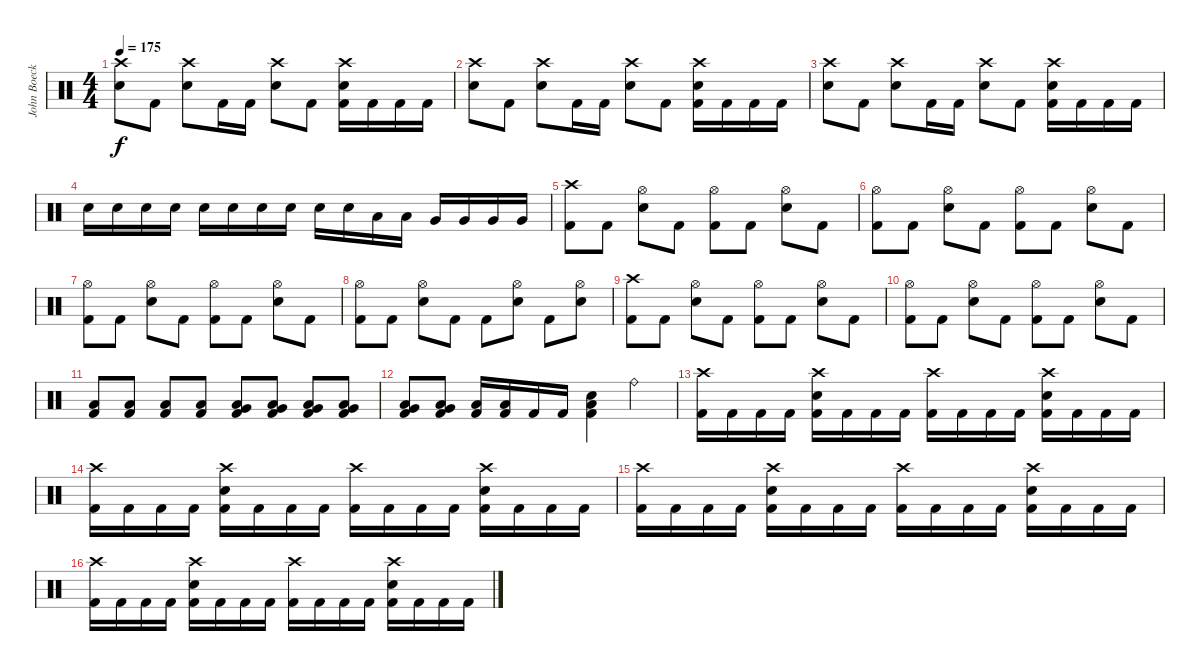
\track ("John Boecklin (Drums)" "John Boeck") {instrument percussion}
\staff {score}
\articulation defaults
\ts (4 4)
\tempo 175
\clef neutral
\ks c
("Crash high (hit)" "Snare (hit) 2").8{dy f} "Kick (hit) 2".8 ("Crash high (hit)" "Snare (hit) 2").8 "Kick (hit) 2".16 "Kick (hit) 2".16 ("Crash high (hit)" "Snare (hit) 2").8 "Kick (hit) 2".8 ("Crash high (hit)" "Snare (hit) 2" "Kick (hit) 2").16 "Kick (hit) 2".16 "Kick (hit) 2".16 "Kick (hit) 2".16 |
("Crash high (hit)" "Snare (hit) 2").8 "Kick (hit) 2".8 ("Crash high (hit)" "Snare (hit) 2").8 "Kick (hit) 2".16 "Kick (hit) 2".16 ("Crash high (hit)" "Snare (hit) 2").8 "Kick (hit) 2".8 ("Crash high (hit)" "Snare (hit) 2" "Kick (hit) 2").16 "Kick (hit) 2".16 "Kick (hit) 2".16 "Kick (hit) 2".16 |
("Crash high (hit)" "Snare (hit) 2").8 "Kick (hit) 2".8 ("Crash high (hit)" "Snare (hit) 2").8 "Kick (hit) 2".16 "Kick (hit) 2".16 ("Crash high (hit)" "Snare (hit) 2").8 "Kick (hit) 2".8 ("Crash high (hit)" "Snare (hit) 2" "Kick (hit) 2").16 "Kick (hit) 2".16 "Kick (hit) 2".16 "Kick (hit) 2".16 |
"Snare (hit) 2".16 "Snare (hit) 2".16 "Snare (hit) 2".16 "Snare (hit) 2".16 "Snare (hit) 2".16 "Snare (hit) 2".16 "Snare (hit) 2".16 "Snare (hit) 2".16 "Snare (hit) 2".16 "Snare (hit) 2".16 "Low Tom (hit)".16 "Low Tom (hit)".16 "Very Low Tom (hit)".16 "Very Low Tom (hit)".16 "Very Low Tom (hit)".16 "Very Low Tom (hit)".16 |
("Crash high (hit)" "Kick (hit) 2").8 "Kick (hit) 2".8 ("Hi-Hat (open)" "Snare (hit) 2").8 "Kick (hit) 2".8 ("Hi-Hat (open)" "Kick (hit) 2").8 "Kick (hit) 2".8 ("Hi-Hat (open)" "Snare (hit) 2").8 "Kick (hit) 2".8 |
("Hi-Hat (open)" "Kick (hit) 2").8 "Kick (hit) 2".8 ("Hi-Hat (open)" "Snare (hit) 2").8 "Kick (hit) 2".8 ("Hi-Hat (open)" "Kick (hit) 2").8 "Kick (hit) 2".8 ("Hi-Hat (open)" "Snare (hit) 2").8 "Kick (hit) 2".8 |
("Hi-Hat (open)" "Kick (hit) 2").8 "Kick (hit) 2".8 ("Hi-Hat (open)" "Snare (hit) 2").8 "Kick (hit) 2".8 ("Hi-Hat (open)" "Kick (hit) 2").8 "Kick (hit) 2".8 ("Hi-Hat (open)" "Snare (hit) 2").8 "Kick (hit) 2".8 |
("Hi-Hat (open)" "Kick (hit) 2").8 "Kick (hit) 2".8 ("Hi-Hat (open)" "Snare (hit) 2").8 "Kick (hit) 2".8 "Kick (hit) 2".8 ("Hi-Hat (open)" "Snare (hit) 2").8 "Kick (hit) 2".8 ("Hi-Hat (open)" "Snare (hit) 2").8 |
("Crash high (hit)" "Kick (hit) 2").8 "Kick (hit) 2".8 ("Hi-Hat (open)" "Snare (hit) 2").8 "Kick (hit) 2".8 ("Hi-Hat (open)" "Kick (hit) 2").8 "Kick (hit) 2".8 ("Hi-Hat (open)" "Snare (hit) 2").8 "Kick (hit) 2".8 |
("Hi-Hat (open)" "Kick (hit) 2").8 "Kick (hit) 2".8 ("Hi-Hat (open)" "Snare (hit) 2").8 "Kick (hit) 2".8 ("Hi-Hat (open)" "Kick (hit) 2").8 "Kick (hit) 2".8 ("Hi-Hat (open)" "Snare (hit) 2").8 "Kick (hit) 2".8 |
("Low Floor Tom (hit)" "Kick (hit) 2").8 ("Low Floor Tom (hit)" "Kick (hit) 2").8 ("Low Floor Tom (hit)" "Kick (hit) 2").8 ("Low Floor Tom (hit)" "Kick (hit) 2").8 ("Very Low Tom (hit)" "Low Floor Tom (hit)" "Kick (hit) 2").8 ("Very Low Tom (hit)" "Low Floor Tom (hit)" "Kick (hit) 2").8 ("Very Low Tom (hit)" "Low Floor Tom (hit)" "Kick (hit) 2").8 ("Very Low Tom (hit)" "Low Floor Tom (hit)" "Kick (hit) 2").8 |
("Very Low Tom (hit)" "Low Floor Tom (hit)" "Kick (hit) 2").8 ("Very Low Tom (hit)" "Low Floor Tom (hit)" "Kick (hit) 2").8 ("Low Tom (hit)" "Kick (hit) 2").16 ("Low Tom (hit)" "Kick (hit) 2").16 "Kick (hit) 2".16 "Kick (hit) 2".16 ("Kick (hit) 2" "Low Floor Tom (hit)" "Snare (hit) 2").4 "Ride (bell)".4 |
("Crash high (hit)" "Kick (hit) 2").16 "Kick (hit) 2".16 "Kick (hit) 2".16 "Kick (hit) 2".16 ("Crash high (hit)" "Snare (hit) 2" "Kick (hit) 2").16 "Kick (hit) 2".16 "Kick (hit) 2".16 "Kick (hit) 2".16 ("Crash high (hit)" "Kick (hit) 2").16 "Kick (hit) 2".16 "Kick (hit) 2".16 "Kick (hit) 2".16 ("Crash high (hit)" "Snare (hit) 2" "Kick (hit) 2").16 "Kick (hit) 2".16 "Kick (hit) 2".16 "Kick (hit) 2".16 |
("Crash high (hit)" "Kick (hit) 2").16 "Kick (hit) 2".16 "Kick (hit) 2".16 "Kick (hit) 2".16 ("Crash high (hit)" "Snare (hit) 2" "Kick (hit) 2").16 "Kick (hit) 2".16 "Kick (hit) 2".16 "Kick (hit) 2".16 ("Crash high (hit)" "Kick (hit) 2").16 "Kick (hit) 2".16 "Kick (hit) 2".16 "Kick (hit) 2".16 ("Crash high (hit)" "Snare (hit) 2" "Kick (hit) 2").16 "Kick (hit) 2".16 "Kick (hit) 2".16 "Kick (hit) 2".16 |
("Crash high (hit)" "Kick (hit) 2").16 "Kick (hit) 2".16 "Kick (hit) 2".16 "Kick (hit) 2".16 ("Crash high (hit)" "Snare (hit) 2" "Kick (hit) 2").16 "Kick (hit) 2".16 "Kick (hit) 2".16 "Kick (hit) 2".16 ("Crash high (hit)" "Kick (hit) 2").16 "Kick (hit) 2".16 "Kick (hit) 2".16 "Kick (hit) 2".16 ("Crash high (hit)" "Snare (hit) 2" "Kick (hit) 2").16 "Kick (hit) 2".16 "Kick (hit) 2".16 "Kick (hit) 2".16 |
("Crash high (hit)" "Kick (hit) 2").16 "Kick (hit) 2".16 "Kick (hit) 2".16 "Kick (hit) 2".16 ("Crash high (hit)" "Snare (hit) 2" "Kick (hit) 2").16 "Kick (hit) 2".16 "Kick (hit) 2".16 "Kick (hit) 2".16 ("Crash high (hit)" "Kick (hit) 2").16 "Kick (hit) 2".16 "Kick (hit) 2".16 "Kick (hit) 2".16 ("Crash high (hit)" "Snare (hit) 2" "Kick (hit) 2").16 "Kick (hit) 2".16 "Kick (hit) 2".16 "Kick (hit) 2".16
